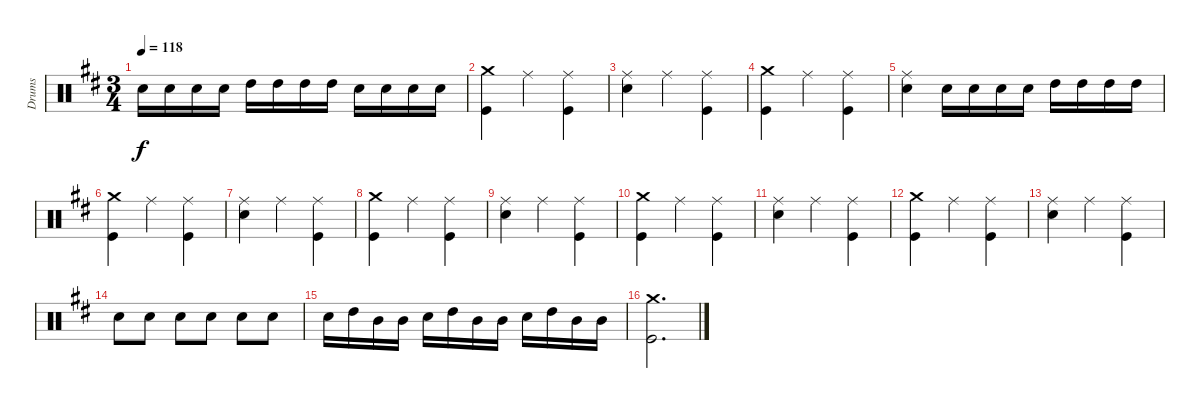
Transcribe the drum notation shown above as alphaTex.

\track ("Drums" "Drums") {instrument percussion}
\staff {score}
\articulation defaults
\ts (3 4)
\tempo 118
\clef neutral
\ks d "Snare (hit) 2".16{dy f} "Snare (hit) 2".16 "Snare (hit) 2".16 "Snare (hit) 2".16 "High Tom (hit)".16 "High Tom (hit)".16 "High Tom (hit)".16 "High Tom (hit)".16 "Snare (hit) 2".16 "Snare (hit) 2".16 "Snare (hit) 2".16 "Snare (hit) 2".16
|
("Crash medium (hit)" "Kick (hit)").4 "Ride (middle)".4 ("Ride (middle)" "Kick (hit)").4 |
("Ride (middle)" "Snare (hit) 2").4 "Ride (middle)".4 ("Ride (middle)" "Kick (hit)").4 |
("Crash medium (hit)" "Kick (hit)").4 "Ride (middle)".4 ("Ride (middle)" "Kick (hit)").4 |
("Ride (middle)" "Snare (hit) 2").4 "Snare (hit) 2".16 "Snare (hit) 2".16 "Snare (hit) 2".16 "Snare (hit) 2".16 "High Tom (hit)".16 "High Tom (hit)".16 "High Tom (hit)".16 "High Tom (hit)".16 |
("Crash medium (hit)" "Kick (hit)").4 "Ride (middle)".4 ("Ride (middle)" "Kick (hit)").4 |
("Ride (middle)" "Snare (hit) 2").4 "Ride (middle)".4 ("Ride (middle)" "Kick (hit)").4 |
("Crash medium (hit)" "Kick (hit)").4 "Ride (middle)".4 ("Ride (middle)" "Kick (hit)").4 |
("Ride (middle)" "Snare (hit) 2").4 "Ride (middle)".4 ("Ride (middle)" "Kick (hit)").4 |
("Crash medium (hit)" "Kick (hit)").4 "Ride (middle)".4 ("Ride (middle)" "Kick (hit)").4 |
("Ride (middle)" "Snare (hit) 2").4 "Ride (middle)".4 ("Ride (middle)" "Kick (hit)").4 |
("Crash medium (hit)" "Kick (hit)").4 "Ride (middle)".4 ("Ride (middle)" "Kick (hit)").4 |
("Ride (middle)" "Snare (hit) 2").4 "Ride (middle)".4 ("Ride (middle)" "Kick (hit)").4 |
"Snare (hit) 2".8 "Snare (hit) 2".8 "Snare (hit) 2".8 "Snare (hit) 2".8 "Snare (hit) 2".8 "Snare (hit) 2".8 |
"Snare (hit) 2".16 "High Tom (hit)".16 "Mid Tom (hit)".16 "Mid Tom (hit)".16 "Snare (hit) 2".16 "High Tom (hit)".16 "Mid Tom (hit)".16 "Mid Tom (hit)".16 "Snare (hit) 2".16 "High Tom (hit)".16 "Mid Tom (hit)".16 "Mid Tom (hit)".16 |
("Crash medium (hit)" "Kick (hit)").2{d}
